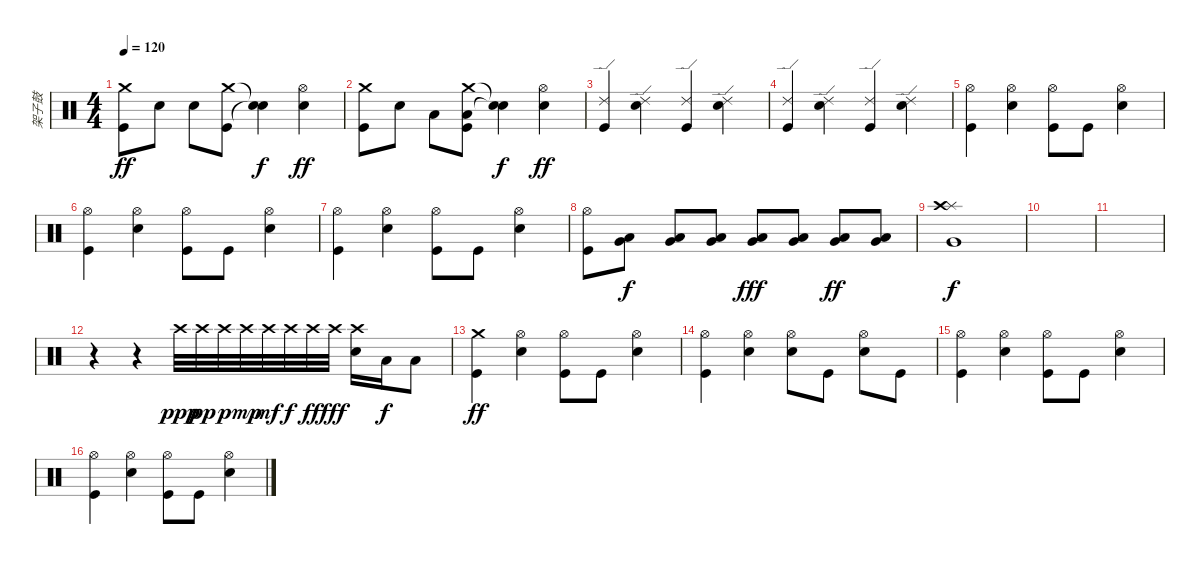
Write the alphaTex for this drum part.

\track ("架子鼓" "架子鼓") {instrument percussion}
\staff {score}
\articulation defaults
\ts (4 4)
\tempo 120
\clef neutral
\ks c
("Crash medium (hit)" "Kick (hit)").8{dy ff} "Snare (hit) 2".8 "Snare (hit) 2".8 ("Crash medium (hit)" "Kick (hit)").8 ("Snare (hit)"{t} "Snare (hit)"{t}).4{dy f} ("Hi-Hat (open)" "Snare (hit) 2").4{dy ff} |
("Crash medium (hit)" "Kick (hit)").8 "Snare (hit) 2".8 "Low Tom (hit)".8 ("Crash medium (hit)" "Low Tom (hit)" "Kick (hit)").8 ("Snare (hit)"{t} "Snare (hit)"{t}).4{dy f} ("Hi-Hat (open)" "Snare (hit) 2").4{dy ff} |
("Ride (edge) 2" "Kick (hit)").4 ("Ride (edge) 2" "Snare (hit) 2").4 ("Ride (edge) 2" "Kick (hit)").4 ("Ride (edge) 2" "Snare (hit) 2").4 |
("Ride (edge) 2" "Kick (hit)").4 ("Ride (edge) 2" "Snare (hit) 2").4 ("Ride (edge) 2" "Kick (hit)").4 ("Ride (edge) 2" "Snare (hit) 2").4 |
("Hi-Hat (open)" "Kick (hit)").4 ("Hi-Hat (open)" "Snare (hit) 2").4 ("Hi-Hat (open)" "Kick (hit)").8 "Kick (hit)".8 ("Hi-Hat (open)" "Snare (hit) 2").4 |
("Hi-Hat (open)" "Kick (hit)").4 ("Hi-Hat (open)" "Snare (hit) 2").4 ("Hi-Hat (open)" "Kick (hit)").8 "Kick (hit)".8 ("Hi-Hat (open)" "Snare (hit) 2").4 |
("Hi-Hat (open)" "Kick (hit)").4 ("Hi-Hat (open)" "Snare (hit) 2").4 ("Hi-Hat (open)" "Kick (hit)").8 "Kick (hit)".8 ("Hi-Hat (open)" "Snare (hit) 2").4 |
("Hi-Hat (open)" "Kick (hit)").8 ("Very Low Tom (hit)" "Low Tom (hit)").8{dy f} ("Very Low Tom (hit)" "Low Tom (hit)").8 ("Very Low Tom (hit)" "Low Tom (hit)").8 ("Very Low Tom (hit)" "Low Tom (hit)").8{dy fff} ("Very Low Tom (hit)" "Low Tom (hit)").8 ("Very Low Tom (hit)" "Low Tom (hit)").8{dy ff} ("Very Low Tom (hit)" "Low Tom (hit)").8 |
("Splash (hit)" "Crash high (hit)" "Very Low Tom (hit)").1{dy f} |
|
|
r.4 r.4 "Crash high (hit)".32{dy ppp} "Crash high (hit)".32{dy pp} "Crash high (hit)".32{dy p} "Crash high (hit)".32{dy mp} "Crash high (hit)".32{dy mf} "Crash high (hit)".32{dy f} "Crash high (hit)".32{dy ff} "Crash high (hit)".32{dy fff} ("Crash high (hit)" "Snare (hit) 2").16 "Low Floor Tom (hit)".16{dy f} "Low Tom (hit)".8 |
("Crash medium (hit)" "Kick (hit)").4{dy ff} ("Hi-Hat (open)" "Snare (hit) 2").4 ("Hi-Hat (open)" "Kick (hit)").8 "Kick (hit)".8 ("Hi-Hat (open)" "Snare (hit) 2").4 |
("Hi-Hat (open)" "Kick (hit)").4 ("Hi-Hat (open)" "Snare (hit) 2").4 ("Hi-Hat (open)" "Snare (hit) 2").8 "Kick (hit)".8 ("Hi-Hat (open)" "Snare (hit) 2").8 "Kick (hit)".8 |
("Hi-Hat (open)" "Kick (hit)").4 ("Hi-Hat (open)" "Snare (hit) 2").4 ("Hi-Hat (open)" "Kick (hit)").8 "Kick (hit)".8 ("Hi-Hat (open)" "Snare (hit) 2").4 |
("Hi-Hat (open)" "Kick (hit)").4 ("Hi-Hat (open)" "Snare (hit) 2").4 ("Hi-Hat (open)" "Kick (hit)").8 "Kick (hit)".8 ("Hi-Hat (open)" "Snare (hit) 2").4
